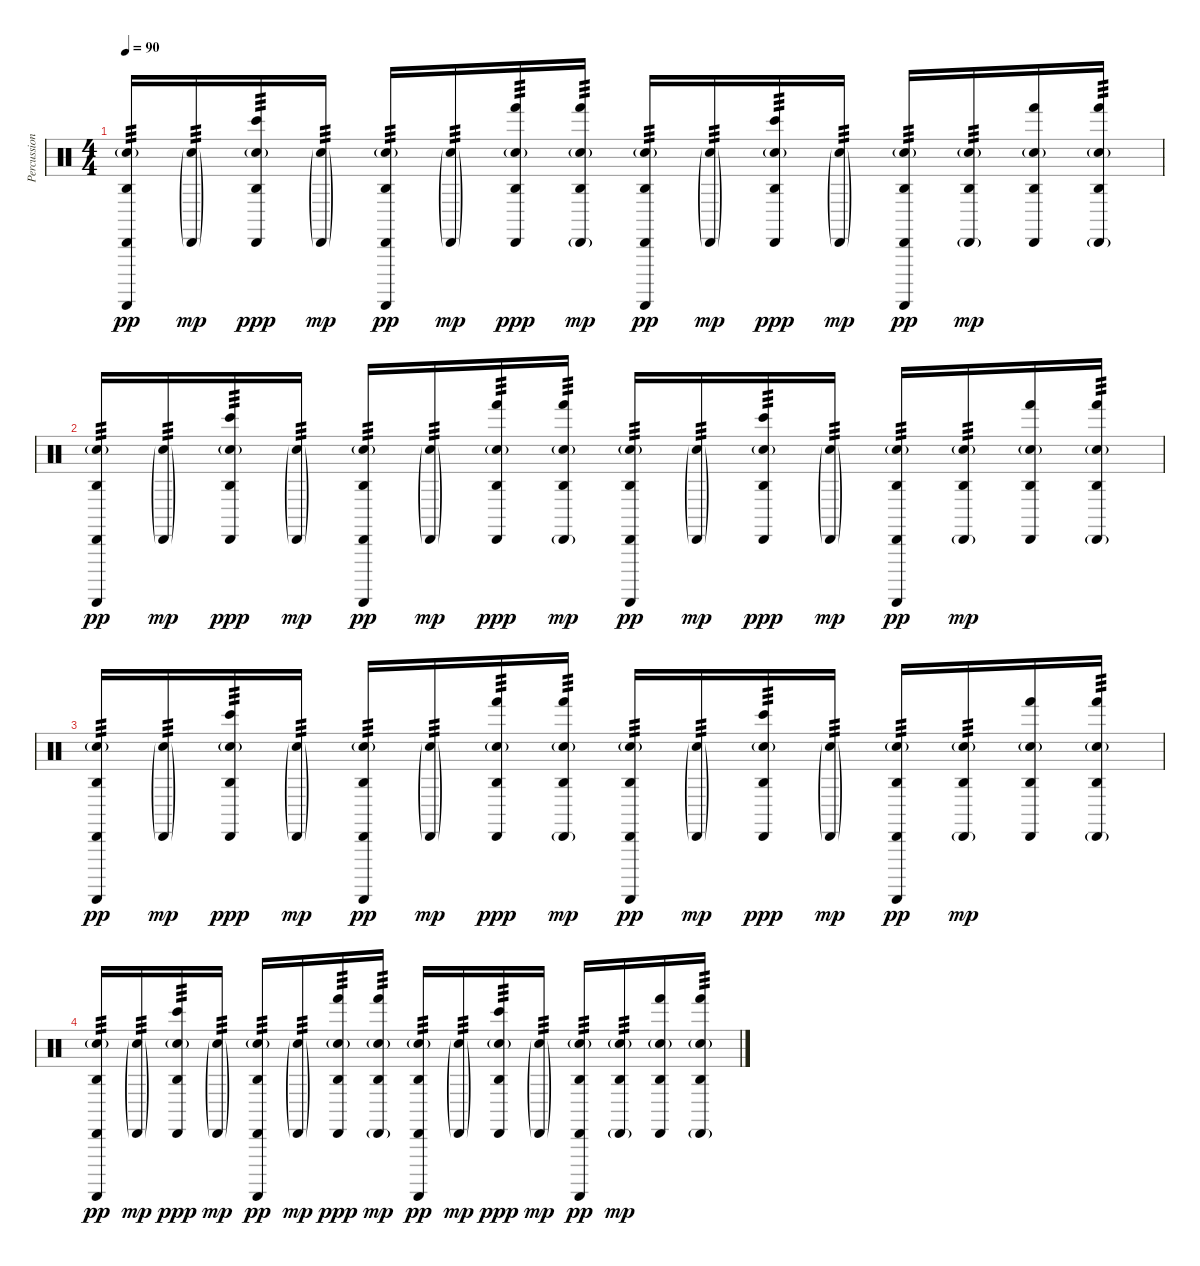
\track ("Percussion" "Percussion") {instrument percussion}
\staff {score}
\articulation defaults
\ts (4 4)
\tempo 90
\clef neutral
\ks c
("Snare (hit) 2"{g} "Cabasa (hit)" "Agogo high (hit)" "Guiro (scrap-return)").16{tp 3 dy pp} ("Snare (hit) 2"{g} "Cabasa (hit)"{g}).16{tp 3 dy mp} ("Snare (hit) 2"{g} "Cabasa (hit)" "Agogo high (hit)" "Bongo High (hit)").16{tp 3 dy ppp} ("Snare (hit) 2"{g} "Cabasa (hit)"{g}).16{tp 3 dy mp} ("Snare (hit) 2"{g} "Cabasa (hit)" "Agogo high (hit)" "Guiro (scrap-return)").16{tp 3 dy pp} ("Snare (hit) 2"{g} "Cabasa (hit)"{g}).16{tp 3 dy mp} ("Snare (hit) 2"{g} "Cabasa (hit)" "Agogo high (hit)" "Hand (hit)").16{tp 3 dy ppp} ("Snare (hit) 2"{g} "Cabasa (hit)"{g} "Agogo high (hit)" "Hand (hit)").16{tp 3 dy mp} ("Snare (hit) 2"{g} "Cabasa (hit)" "Agogo high (hit)" "Guiro (scrap-return)").16{tp 3 dy pp} ("Snare (hit) 2"{g} "Cabasa (hit)"{g}).16{tp 3 dy mp} ("Snare (hit) 2"{g} "Cabasa (hit)" "Agogo high (hit)" "Bongo High (hit)").16{tp 3 dy ppp} ("Snare (hit) 2"{g} "Cabasa (hit)"{g}).16{tp 3 dy mp} ("Snare (hit) 2"{g} "Cabasa (hit)" "Agogo high (hit)" "Guiro (scrap-return)").16{tp 3 dy pp} ("Snare (hit) 2"{g} "Cabasa (hit)"{g} "Agogo high (hit)").16{tp 3 dy mp} ("Snare (hit) 2"{g} "Cabasa (hit)" "Agogo high (hit)" "Hand (hit)").16 ("Snare (hit) 2"{g} "Cabasa (hit)"{g} "Agogo high (hit)" "Hand (hit)").16{tp 3} |
("Snare (hit) 2"{g} "Cabasa (hit)" "Agogo high (hit)" "Guiro (scrap-return)").16{tp 3 dy pp} ("Snare (hit) 2"{g} "Cabasa (hit)"{g}).16{tp 3 dy mp} ("Snare (hit) 2"{g} "Cabasa (hit)" "Agogo high (hit)" "Bongo High (hit)").16{tp 3 dy ppp} ("Snare (hit) 2"{g} "Cabasa (hit)"{g}).16{tp 3 dy mp} ("Snare (hit) 2"{g} "Cabasa (hit)" "Agogo high (hit)" "Guiro (scrap-return)").16{tp 3 dy pp} ("Snare (hit) 2"{g} "Cabasa (hit)"{g}).16{tp 3 dy mp} ("Snare (hit) 2"{g} "Cabasa (hit)" "Agogo high (hit)" "Hand (hit)").16{tp 3 dy ppp} ("Snare (hit) 2"{g} "Cabasa (hit)"{g} "Agogo high (hit)" "Hand (hit)").16{tp 3 dy mp} ("Snare (hit) 2"{g} "Cabasa (hit)" "Agogo high (hit)" "Guiro (scrap-return)").16{tp 3 dy pp} ("Snare (hit) 2"{g} "Cabasa (hit)"{g}).16{tp 3 dy mp} ("Snare (hit) 2"{g} "Cabasa (hit)" "Agogo high (hit)" "Bongo High (hit)").16{tp 3 dy ppp} ("Snare (hit) 2"{g} "Cabasa (hit)"{g}).16{tp 3 dy mp} ("Snare (hit) 2"{g} "Cabasa (hit)" "Agogo high (hit)" "Guiro (scrap-return)").16{tp 3 dy pp} ("Snare (hit) 2"{g} "Cabasa (hit)"{g} "Agogo high (hit)").16{tp 3 dy mp} ("Snare (hit) 2"{g} "Cabasa (hit)" "Agogo high (hit)" "Hand (hit)").16 ("Snare (hit) 2"{g} "Cabasa (hit)"{g} "Agogo high (hit)" "Hand (hit)").16{tp 3} |
("Snare (hit) 2"{g} "Cabasa (hit)" "Agogo high (hit)" "Guiro (scrap-return)").16{tp 3 dy pp} ("Snare (hit) 2"{g} "Cabasa (hit)"{g}).16{tp 3 dy mp} ("Snare (hit) 2"{g} "Cabasa (hit)" "Agogo high (hit)" "Bongo High (hit)").16{tp 3 dy ppp} ("Snare (hit) 2"{g} "Cabasa (hit)"{g}).16{tp 3 dy mp} ("Snare (hit) 2"{g} "Cabasa (hit)" "Agogo high (hit)" "Guiro (scrap-return)").16{tp 3 dy pp} ("Snare (hit) 2"{g} "Cabasa (hit)"{g}).16{tp 3 dy mp} ("Snare (hit) 2"{g} "Cabasa (hit)" "Agogo high (hit)" "Hand (hit)").16{tp 3 dy ppp} ("Snare (hit) 2"{g} "Cabasa (hit)"{g} "Agogo high (hit)" "Hand (hit)").16{tp 3 dy mp} ("Snare (hit) 2"{g} "Cabasa (hit)" "Agogo high (hit)" "Guiro (scrap-return)").16{tp 3 dy pp} ("Snare (hit) 2"{g} "Cabasa (hit)"{g}).16{tp 3 dy mp} ("Snare (hit) 2"{g} "Cabasa (hit)" "Agogo high (hit)" "Bongo High (hit)").16{tp 3 dy ppp} ("Snare (hit) 2"{g} "Cabasa (hit)"{g}).16{tp 3 dy mp} ("Snare (hit) 2"{g} "Cabasa (hit)" "Agogo high (hit)" "Guiro (scrap-return)").16{tp 3 dy pp} ("Snare (hit) 2"{g} "Cabasa (hit)"{g} "Agogo high (hit)").16{tp 3 dy mp} ("Snare (hit) 2"{g} "Cabasa (hit)" "Agogo high (hit)" "Hand (hit)").16 ("Snare (hit) 2"{g} "Cabasa (hit)"{g} "Agogo high (hit)" "Hand (hit)").16{tp 3} |
("Snare (hit) 2"{g} "Cabasa (hit)" "Agogo high (hit)" "Guiro (scrap-return)").16{tp 3 dy pp} ("Snare (hit) 2"{g} "Cabasa (hit)"{g}).16{tp 3 dy mp} ("Snare (hit) 2"{g} "Cabasa (hit)" "Agogo high (hit)" "Bongo High (hit)").16{tp 3 dy ppp} ("Snare (hit) 2"{g} "Cabasa (hit)"{g}).16{tp 3 dy mp} ("Snare (hit) 2"{g} "Cabasa (hit)" "Agogo high (hit)" "Guiro (scrap-return)").16{tp 3 dy pp} ("Snare (hit) 2"{g} "Cabasa (hit)"{g}).16{tp 3 dy mp} ("Snare (hit) 2"{g} "Cabasa (hit)" "Agogo high (hit)" "Hand (hit)").16{tp 3 dy ppp} ("Snare (hit) 2"{g} "Cabasa (hit)"{g} "Agogo high (hit)" "Hand (hit)").16{tp 3 dy mp} ("Snare (hit) 2"{g} "Cabasa (hit)" "Agogo high (hit)" "Guiro (scrap-return)").16{tp 3 dy pp} ("Snare (hit) 2"{g} "Cabasa (hit)"{g}).16{tp 3 dy mp} ("Snare (hit) 2"{g} "Cabasa (hit)" "Agogo high (hit)" "Bongo High (hit)").16{tp 3 dy ppp} ("Snare (hit) 2"{g} "Cabasa (hit)"{g}).16{tp 3 dy mp} ("Snare (hit) 2"{g} "Cabasa (hit)" "Agogo high (hit)" "Guiro (scrap-return)").16{tp 3 dy pp} ("Snare (hit) 2"{g} "Cabasa (hit)"{g} "Agogo high (hit)").16{tp 3 dy mp} ("Snare (hit) 2"{g} "Cabasa (hit)" "Agogo high (hit)" "Hand (hit)").16 ("Snare (hit) 2"{g} "Cabasa (hit)"{g} "Agogo high (hit)" "Hand (hit)").16{tp 3}
